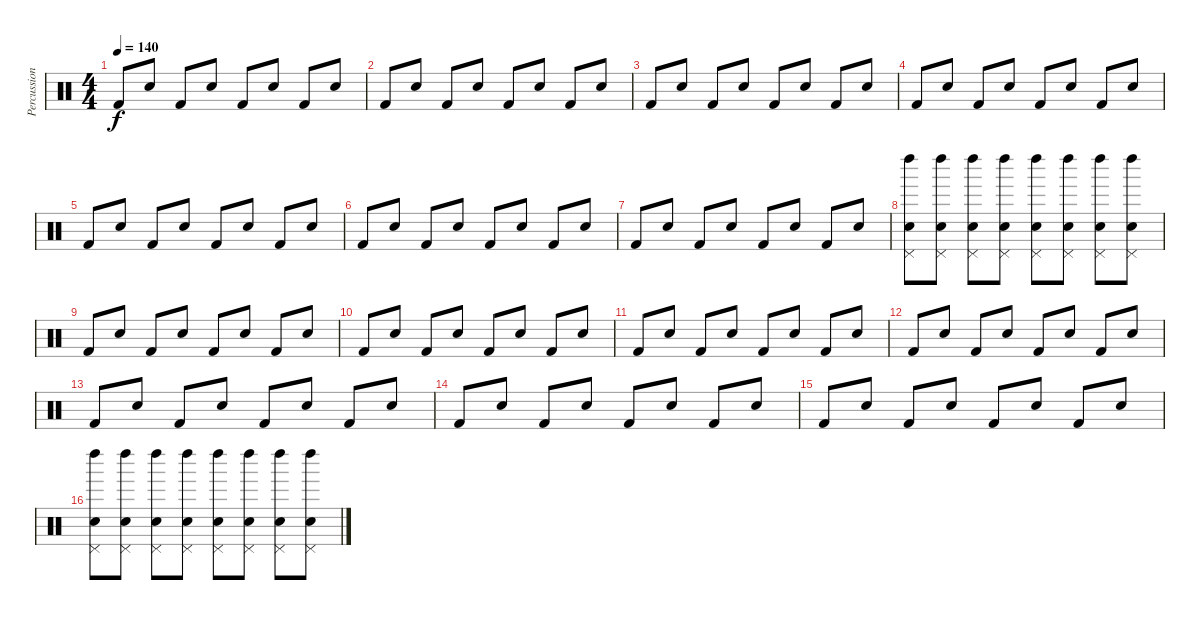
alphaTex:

\track ("Percussions" "Percussion") {instrument percussion}
\staff {score}
\articulation defaults
\ts (4 4)
\tempo 140
\clef neutral
\ks c "Kick (hit) 2".8{dy f} "Electric Snare (hit)".8 "Kick (hit) 2".8 "Electric Snare (hit)".8 "Kick (hit) 2".8 "Electric Snare (hit)".8 "Kick (hit) 2".8 "Electric Snare (hit)".8
|
"Kick (hit) 2".8 "Electric Snare (hit)".8 "Kick (hit) 2".8 "Electric Snare (hit)".8 "Kick (hit) 2".8 "Electric Snare (hit)".8 "Kick (hit) 2".8 "Electric Snare (hit)".8 |
"Kick (hit) 2".8 "Electric Snare (hit)".8 "Kick (hit) 2".8 "Electric Snare (hit)".8 "Kick (hit) 2".8 "Electric Snare (hit)".8 "Kick (hit) 2".8 "Electric Snare (hit)".8 |
"Kick (hit) 2".8 "Electric Snare (hit)".8 "Kick (hit) 2".8 "Electric Snare (hit)".8 "Kick (hit) 2".8 "Electric Snare (hit)".8 "Kick (hit) 2".8 "Electric Snare (hit)".8 |
"Kick (hit) 2".8 "Electric Snare (hit)".8 "Kick (hit) 2".8 "Electric Snare (hit)".8 "Kick (hit) 2".8 "Electric Snare (hit)".8 "Kick (hit) 2".8 "Electric Snare (hit)".8 |
"Kick (hit) 2".8 "Electric Snare (hit)".8 "Kick (hit) 2".8 "Electric Snare (hit)".8 "Kick (hit) 2".8 "Electric Snare (hit)".8 "Kick (hit) 2".8 "Electric Snare (hit)".8 |
"Kick (hit) 2".8 "Electric Snare (hit)".8 "Kick (hit) 2".8 "Electric Snare (hit)".8 "Kick (hit) 2".8 "Electric Snare (hit)".8 "Kick (hit) 2".8 "Electric Snare (hit)".8 |
("Pedal Hi-Hat (hit)" "Left Maraca (hit)" "Electric Snare (hit)").8 ("Pedal Hi-Hat (hit)" "Left Maraca (hit)" "Electric Snare (hit)").8 ("Pedal Hi-Hat (hit)" "Left Maraca (hit)" "Electric Snare (hit)").8 ("Pedal Hi-Hat (hit)" "Left Maraca (hit)" "Electric Snare (hit)").8 ("Pedal Hi-Hat (hit)" "Left Maraca (hit)" "Electric Snare (hit)").8 ("Pedal Hi-Hat (hit)" "Left Maraca (hit)" "Electric Snare (hit)").8 ("Pedal Hi-Hat (hit)" "Left Maraca (hit)" "Electric Snare (hit)").8 ("Pedal Hi-Hat (hit)" "Left Maraca (hit)" "Electric Snare (hit)").8 |
"Kick (hit) 2".8 "Electric Snare (hit)".8 "Kick (hit) 2".8 "Electric Snare (hit)".8 "Kick (hit) 2".8 "Electric Snare (hit)".8 "Kick (hit) 2".8 "Electric Snare (hit)".8 |
"Kick (hit) 2".8 "Electric Snare (hit)".8 "Kick (hit) 2".8 "Electric Snare (hit)".8 "Kick (hit) 2".8 "Electric Snare (hit)".8 "Kick (hit) 2".8 "Electric Snare (hit)".8 |
"Kick (hit) 2".8 "Electric Snare (hit)".8 "Kick (hit) 2".8 "Electric Snare (hit)".8 "Kick (hit) 2".8 "Electric Snare (hit)".8 "Kick (hit) 2".8 "Electric Snare (hit)".8 |
"Kick (hit) 2".8 "Electric Snare (hit)".8 "Kick (hit) 2".8 "Electric Snare (hit)".8 "Kick (hit) 2".8 "Electric Snare (hit)".8 "Kick (hit) 2".8 "Electric Snare (hit)".8 |
"Kick (hit) 2".8 "Electric Snare (hit)".8 "Kick (hit) 2".8 "Electric Snare (hit)".8 "Kick (hit) 2".8 "Electric Snare (hit)".8 "Kick (hit) 2".8 "Electric Snare (hit)".8 |
"Kick (hit) 2".8 "Electric Snare (hit)".8 "Kick (hit) 2".8 "Electric Snare (hit)".8 "Kick (hit) 2".8 "Electric Snare (hit)".8 "Kick (hit) 2".8 "Electric Snare (hit)".8 |
"Kick (hit) 2".8 "Electric Snare (hit)".8 "Kick (hit) 2".8 "Electric Snare (hit)".8 "Kick (hit) 2".8 "Electric Snare (hit)".8 "Kick (hit) 2".8 "Electric Snare (hit)".8 |
("Pedal Hi-Hat (hit)" "Left Maraca (hit)" "Electric Snare (hit)").8 ("Pedal Hi-Hat (hit)" "Left Maraca (hit)" "Electric Snare (hit)").8 ("Pedal Hi-Hat (hit)" "Left Maraca (hit)" "Electric Snare (hit)").8 ("Pedal Hi-Hat (hit)" "Left Maraca (hit)" "Electric Snare (hit)").8 ("Pedal Hi-Hat (hit)" "Left Maraca (hit)" "Electric Snare (hit)").8 ("Pedal Hi-Hat (hit)" "Left Maraca (hit)" "Electric Snare (hit)").8 ("Pedal Hi-Hat (hit)" "Left Maraca (hit)" "Electric Snare (hit)").8 ("Pedal Hi-Hat (hit)" "Left Maraca (hit)" "Electric Snare (hit)").8
